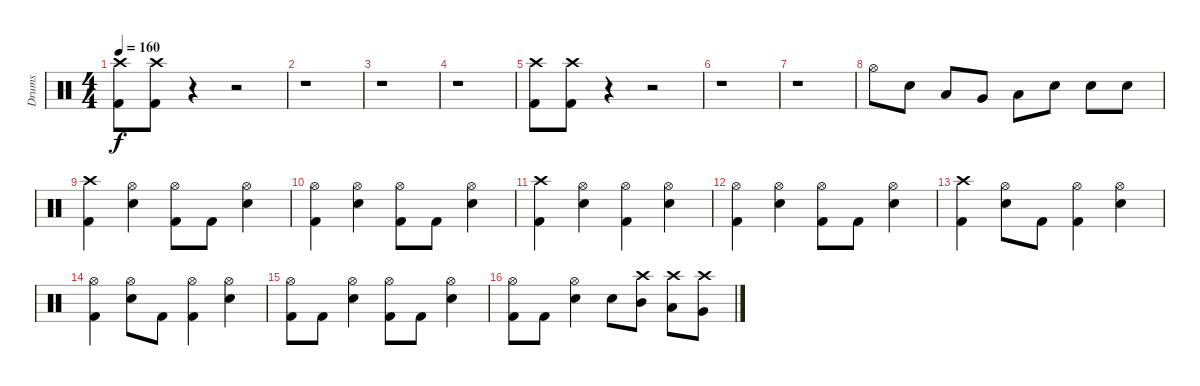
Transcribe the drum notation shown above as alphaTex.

\track ("Drums" "Drums") {instrument percussion}
\staff {score}
\articulation defaults
\ts (4 4)
\tempo 160
\clef neutral
\ks c
("Crash high (hit)" "Kick (hit) 2").8{dy f} ("Crash high (hit)" "Kick (hit) 2").8 r.4 r.2 |
r.1 |
r.1 |
r.1 |
("Crash high (hit)" "Kick (hit) 2").8 ("Crash high (hit)" "Kick (hit) 2").8 r.4 r.2 |
r.1 |
r.1 |
"Hi-Hat (open)".8 "Electric Snare (hit)".8 "Low Tom (hit)".8 "Very Low Tom (hit)".8 "Low Tom (hit)".8 "Electric Snare (hit)".8 "Electric Snare (hit)".8 "Electric Snare (hit)".8 |
("Crash high (hit)" "Kick (hit) 2").4 ("Hi-Hat (open)" "Electric Snare (hit)").4 ("Hi-Hat (open)" "Kick (hit) 2").8 "Kick (hit) 2".8 ("Hi-Hat (open)" "Electric Snare (hit)").4 |
("Hi-Hat (open)" "Kick (hit) 2").4 ("Hi-Hat (open)" "Electric Snare (hit)").4 ("Hi-Hat (open)" "Kick (hit) 2").8 "Kick (hit) 2".8 ("Hi-Hat (open)" "Electric Snare (hit)").4 |
("Crash high (hit)" "Kick (hit) 2").4 ("Hi-Hat (open)" "Electric Snare (hit)").4 ("Hi-Hat (open)" "Kick (hit) 2").4 ("Hi-Hat (open)" "Electric Snare (hit)").4 |
("Hi-Hat (open)" "Kick (hit) 2").4 ("Hi-Hat (open)" "Electric Snare (hit)").4 ("Hi-Hat (open)" "Kick (hit) 2").8 "Kick (hit) 2".8 ("Hi-Hat (open)" "Electric Snare (hit)").4 |
("Crash high (hit)" "Kick (hit) 2").4 ("Hi-Hat (open)" "Electric Snare (hit)").8 "Kick (hit) 2".8 ("Hi-Hat (open)" "Kick (hit) 2").4 ("Hi-Hat (open)" "Electric Snare (hit)").4 |
("Hi-Hat (open)" "Kick (hit) 2").4 ("Hi-Hat (open)" "Electric Snare (hit)").8 "Kick (hit) 2".8 ("Hi-Hat (open)" "Kick (hit) 2").4 ("Hi-Hat (open)" "Electric Snare (hit)").4 |
("Hi-Hat (open)" "Kick (hit) 2").8 "Kick (hit) 2".8 ("Hi-Hat (open)" "Electric Snare (hit)").4 ("Hi-Hat (open)" "Kick (hit) 2").8 "Kick (hit) 2".8 ("Hi-Hat (open)" "Electric Snare (hit)").4 |
("Hi-Hat (open)" "Kick (hit) 2").8 "Kick (hit) 2".8 ("Hi-Hat (open)" "Electric Snare (hit)").4 "Electric Snare (hit)".8 ("Crash high (hit)" "Mid Tom (hit)").8 ("Crash high (hit)" "Low Tom (hit)").8 ("Crash high (hit)" "Very Low Tom (hit)").8
